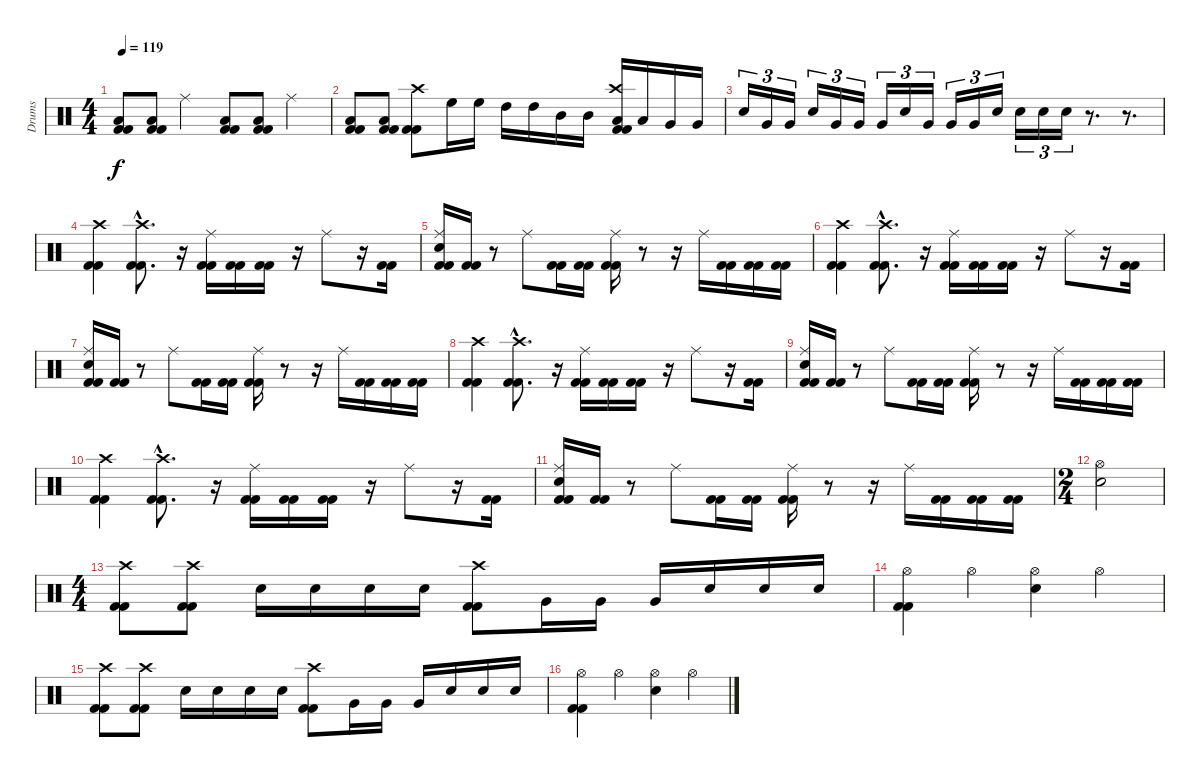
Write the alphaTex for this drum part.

\track ("Drums" "Drums") {instrument percussion}
\staff {score}
\articulation defaults
\ts (4 4)
\tempo 119
\clef neutral
\ks c
("Low Floor Tom (hit)" "Kick (hit) 2" "Kick (hit) 2").8{dy f} ("Low Floor Tom (hit)" "Kick (hit) 2" "Kick (hit) 2").8 "Ride (middle)".4 ("Low Floor Tom (hit)" "Kick (hit) 2" "Kick (hit) 2").8 ("Low Floor Tom (hit)" "Kick (hit) 2" "Kick (hit) 2").8 "Ride (middle)".4 |
("Low Floor Tom (hit)" "Kick (hit) 2" "Kick (hit) 2").8 ("Low Floor Tom (hit)" "Kick (hit) 2" "Kick (hit) 2").8 ("Crash high (hit)" "Kick (hit) 2" "Kick (hit) 2").8 "High Floor Tom (hit)".16 "High Floor Tom (hit)".16 "High Tom (hit)".16 "High Tom (hit)".16 "Mid Tom (hit)".16 "Mid Tom (hit)".16 ("Crash high (hit)" "Kick (hit) 2" "Low Tom (hit)" "Kick (hit) 2").16 "Low Tom (hit)".16 "Very Low Tom (hit)".16 "Very Low Tom (hit)".16 |
"Electric Snare (hit)".16{tu (3 2)} "Very Low Tom (hit)".16{tu (3 2)} "Very Low Tom (hit)".16{tu (3 2)} "Electric Snare (hit)".16{tu (3 2)} "Very Low Tom (hit)".16{tu (3 2)} "Very Low Tom (hit)".16{tu (3 2)} "Very Low Tom (hit)".16{tu (3 2)} "Electric Snare (hit)".16{tu (3 2)} "Very Low Tom (hit)".16{tu (3 2)} "Very Low Tom (hit)".16{tu (3 2)} "Very Low Tom (hit)".16{tu (3 2)} "Electric Snare (hit)".16{tu (3 2)} "Electric Snare (hit)".16{tu (3 2)} "Electric Snare (hit)".16{tu (3 2)} "Electric Snare (hit)".16{tu (3 2)} r.8{d} r.8{d} |
("Crash high (hit)" "Kick (hit) 2" "Kick (hit) 2").4 ("Crash high (hit)"{hac} "Kick (hit) 2"{hac} "Kick (hit) 2"{hac}).8{d} r.16 ("Ride (middle)" "Kick (hit) 2" "Kick (hit) 2").16 ("Kick (hit) 2" "Kick (hit) 2").16 ("Kick (hit) 2" "Kick (hit) 2").16 r.16 "Ride (middle)".8 r.16 ("Kick (hit) 2" "Kick (hit) 2").16 |
("Ride (middle)" "Electric Snare (hit)" "Kick (hit) 2" "Kick (hit) 2").16 ("Kick (hit) 2" "Kick (hit) 2").16 r.8 "Ride (middle)".8 ("Kick (hit) 2" "Kick (hit) 2").16 ("Kick (hit) 2" "Kick (hit) 2").16 ("Ride (middle)" "Kick (hit) 2" "Kick (hit) 2").16 r.8 r.16 "Ride (middle)".16 ("Kick (hit) 2" "Kick (hit) 2").16 ("Kick (hit) 2" "Kick (hit) 2").16 ("Kick (hit) 2" "Kick (hit) 2").16 |
("Crash high (hit)" "Kick (hit) 2" "Kick (hit) 2").4 ("Crash high (hit)"{hac} "Kick (hit) 2"{hac} "Kick (hit) 2"{hac}).8{d} r.16 ("Ride (middle)" "Kick (hit) 2" "Kick (hit) 2").16 ("Kick (hit) 2" "Kick (hit) 2").16 ("Kick (hit) 2" "Kick (hit) 2").16 r.16 "Ride (middle)".8 r.16 ("Kick (hit) 2" "Kick (hit) 2").16 |
("Ride (middle)" "Electric Snare (hit)" "Kick (hit) 2" "Kick (hit) 2").16 ("Kick (hit) 2" "Kick (hit) 2").16 r.8 "Ride (middle)".8 ("Kick (hit) 2" "Kick (hit) 2").16 ("Kick (hit) 2" "Kick (hit) 2").16 ("Ride (middle)" "Kick (hit) 2" "Kick (hit) 2").16 r.8 r.16 "Ride (middle)".16 ("Kick (hit) 2" "Kick (hit) 2").16 ("Kick (hit) 2" "Kick (hit) 2").16 ("Kick (hit) 2" "Kick (hit) 2").16 |
("Crash high (hit)" "Kick (hit) 2" "Kick (hit) 2").4 ("Crash high (hit)"{hac} "Kick (hit) 2"{hac} "Kick (hit) 2"{hac}).8{d} r.16 ("Ride (middle)" "Kick (hit) 2" "Kick (hit) 2").16 ("Kick (hit) 2" "Kick (hit) 2").16 ("Kick (hit) 2" "Kick (hit) 2").16 r.16 "Ride (middle)".8 r.16 ("Kick (hit) 2" "Kick (hit) 2").16 |
("Ride (middle)" "Electric Snare (hit)" "Kick (hit) 2" "Kick (hit) 2").16 ("Kick (hit) 2" "Kick (hit) 2").16 r.8 "Ride (middle)".8 ("Kick (hit) 2" "Kick (hit) 2").16 ("Kick (hit) 2" "Kick (hit) 2").16 ("Ride (middle)" "Kick (hit) 2" "Kick (hit) 2").16 r.8 r.16 "Ride (middle)".16 ("Kick (hit) 2" "Kick (hit) 2").16 ("Kick (hit) 2" "Kick (hit) 2").16 ("Kick (hit) 2" "Kick (hit) 2").16 |
("Crash high (hit)" "Kick (hit) 2" "Kick (hit) 2").4 ("Crash high (hit)"{hac} "Kick (hit) 2"{hac} "Kick (hit) 2"{hac}).8{d} r.16 ("Ride (middle)" "Kick (hit) 2" "Kick (hit) 2").16 ("Kick (hit) 2" "Kick (hit) 2").16 ("Kick (hit) 2" "Kick (hit) 2").16 r.16 "Ride (middle)".8 r.16 ("Kick (hit) 2" "Kick (hit) 2").16 |
("Ride (middle)" "Electric Snare (hit)" "Kick (hit) 2" "Kick (hit) 2").16 ("Kick (hit) 2" "Kick (hit) 2").16 r.8 "Ride (middle)".8 ("Kick (hit) 2" "Kick (hit) 2").16 ("Kick (hit) 2" "Kick (hit) 2").16 ("Ride (middle)" "Kick (hit) 2" "Kick (hit) 2").16 r.8 r.16 "Ride (middle)".16 ("Kick (hit) 2" "Kick (hit) 2").16 ("Kick (hit) 2" "Kick (hit) 2").16 ("Kick (hit) 2" "Kick (hit) 2").16 |
\ts (2 4)
("Hi-Hat (open)" "Electric Snare (hit)").2 |
\ts (4 4)
("Crash high (hit)" "Kick (hit) 2" "Kick (hit) 2").8 ("Crash high (hit)" "Kick (hit) 2" "Kick (hit) 2").8 "Electric Snare (hit)".16 "Electric Snare (hit)".16 "Electric Snare (hit)".16 "Electric Snare (hit)".16 ("Crash high (hit)" "Kick (hit) 2" "Kick (hit) 2").8 "Very Low Tom (hit)".16 "Very Low Tom (hit)".16 "Very Low Tom (hit)".16 "Electric Snare (hit)".16 "Electric Snare (hit)".16 "Electric Snare (hit)".16 |
("Hi-Hat (open)" "Kick (hit) 2" "Kick (hit) 2").4 "Hi-Hat (open)".4 ("Hi-Hat (open)" "Electric Snare (hit)").4 "Hi-Hat (open)".4 |
("Crash high (hit)" "Kick (hit) 2" "Kick (hit) 2").8 ("Crash high (hit)" "Kick (hit) 2" "Kick (hit) 2").8 "Electric Snare (hit)".16 "Electric Snare (hit)".16 "Electric Snare (hit)".16 "Electric Snare (hit)".16 ("Crash high (hit)" "Kick (hit) 2" "Kick (hit) 2").8 "Very Low Tom (hit)".16 "Very Low Tom (hit)".16 "Very Low Tom (hit)".16 "Electric Snare (hit)".16 "Electric Snare (hit)".16 "Electric Snare (hit)".16 |
("Hi-Hat (open)" "Kick (hit) 2" "Kick (hit) 2").4 "Hi-Hat (open)".4 ("Hi-Hat (open)" "Electric Snare (hit)").4 "Hi-Hat (open)".4
